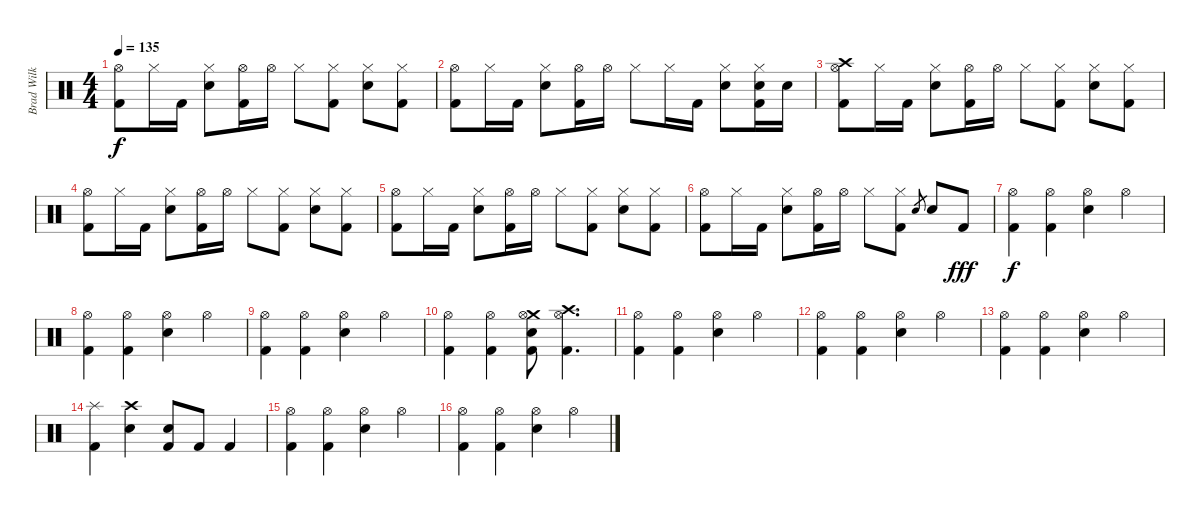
\track ("Brad Wilk" "Brad Wilk") {instrument percussion}
\staff {score}
\articulation defaults
\ts (4 4)
\tempo 135
\clef neutral
\ks c
("Hi-Hat (open)" "Kick (hit) 2").8{dy f} "Hi-Hat (closed)".16 "Kick (hit) 2".16 ("Hi-Hat (closed)" "Electric Snare (hit)").8 ("Hi-Hat (open)" "Kick (hit) 2").16 "Hi-Hat (open)".16 "Hi-Hat (closed)".8 ("Hi-Hat (closed)" "Kick (hit) 2").8 ("Hi-Hat (closed)" "Electric Snare (hit)").8 ("Hi-Hat (closed)" "Kick (hit) 2").8 |
("Hi-Hat (open)" "Kick (hit) 2").8 "Hi-Hat (closed)".16 "Kick (hit) 2".16 ("Hi-Hat (closed)" "Electric Snare (hit)").8 ("Hi-Hat (open)" "Kick (hit) 2").16 "Hi-Hat (open)".16 "Hi-Hat (closed)".8 "Hi-Hat (closed)".16 "Kick (hit) 2".16 ("Hi-Hat (closed)" "Electric Snare (hit)").8 ("Hi-Hat (closed)" "Electric Snare (hit)" "Kick (hit) 2").16 "Electric Snare (hit)".16 |
("Crash high (hit)" "Hi-Hat (open)" "Kick (hit) 2").8 "Hi-Hat (closed)".16 "Kick (hit) 2".16 ("Hi-Hat (closed)" "Electric Snare (hit)").8 ("Hi-Hat (open)" "Kick (hit) 2").16 "Hi-Hat (open)".16 "Hi-Hat (closed)".8 ("Hi-Hat (closed)" "Kick (hit) 2").8 ("Hi-Hat (closed)" "Electric Snare (hit)").8 ("Hi-Hat (closed)" "Kick (hit) 2").8 |
("Hi-Hat (open)" "Kick (hit) 2").8 "Hi-Hat (closed)".16 "Kick (hit) 2".16 ("Hi-Hat (closed)" "Electric Snare (hit)").8 ("Hi-Hat (open)" "Kick (hit) 2").16 "Hi-Hat (open)".16 "Hi-Hat (closed)".8 ("Hi-Hat (closed)" "Kick (hit) 2").8 ("Hi-Hat (closed)" "Electric Snare (hit)").8 ("Hi-Hat (closed)" "Kick (hit) 2").8 |
("Hi-Hat (open)" "Kick (hit) 2").8 "Hi-Hat (closed)".16 "Kick (hit) 2".16 ("Hi-Hat (closed)" "Electric Snare (hit)").8 ("Hi-Hat (open)" "Kick (hit) 2").16 "Hi-Hat (open)".16 "Hi-Hat (closed)".8 ("Hi-Hat (closed)" "Kick (hit) 2").8 ("Hi-Hat (closed)" "Electric Snare (hit)").8 ("Hi-Hat (closed)" "Kick (hit) 2").8 |
("Hi-Hat (open)" "Kick (hit) 2").8 "Hi-Hat (closed)".16 "Kick (hit) 2".16 ("Hi-Hat (closed)" "Electric Snare (hit)").8 ("Hi-Hat (open)" "Kick (hit) 2").16 "Hi-Hat (open)".16 "Hi-Hat (closed)".8 ("Hi-Hat (closed)" "Kick (hit) 2").8 "Electric Snare (hit)".8{gr} "Electric Snare (hit)".8 "Kick (hit) 2".8{dy fff} |
("Hi-Hat (open)" "Kick (hit) 2").4{dy f} ("Hi-Hat (open)" "Kick (hit) 2").4 ("Hi-Hat (open)" "Electric Snare (hit)").4 "Hi-Hat (open)".4 |
("Hi-Hat (open)" "Kick (hit) 2").4 ("Hi-Hat (open)" "Kick (hit) 2").4 ("Hi-Hat (open)" "Electric Snare (hit)").4 "Hi-Hat (open)".4 |
("Hi-Hat (open)" "Kick (hit) 2").4 ("Hi-Hat (open)" "Kick (hit) 2").4 ("Hi-Hat (open)" "Electric Snare (hit)").4 "Hi-Hat (open)".4 |
("Hi-Hat (open)" "Kick (hit) 2").4 ("Hi-Hat (open)" "Kick (hit) 2").4 ("Crash medium (hit)" "Hi-Hat (open)" "Electric Snare (hit)" "Kick (hit) 2").8 ("Crash high (hit)" "Hi-Hat (open)" "Kick (hit) 2").4{d} |
("Hi-Hat (open)" "Kick (hit) 2").4 ("Hi-Hat (open)" "Kick (hit) 2").4 ("Hi-Hat (open)" "Electric Snare (hit)").4 "Hi-Hat (open)".4 |
("Hi-Hat (open)" "Kick (hit) 2").4 ("Hi-Hat (open)" "Kick (hit) 2").4 ("Hi-Hat (open)" "Electric Snare (hit)").4 "Hi-Hat (open)".4 |
("Hi-Hat (open)" "Kick (hit) 2").4 ("Hi-Hat (open)" "Kick (hit) 2").4 ("Hi-Hat (open)" "Electric Snare (hit)").4 "Hi-Hat (open)".4 |
("Splash (hit)" "Kick (hit) 2").4 ("Crash high (hit)" "Electric Snare (hit)").4 ("Electric Snare (hit)" "Kick (hit) 2").8 "Kick (hit) 2".8 "Kick (hit) 2".4 |
("Hi-Hat (open)" "Kick (hit) 2").4 ("Hi-Hat (open)" "Kick (hit) 2").4 ("Hi-Hat (open)" "Electric Snare (hit)").4 "Hi-Hat (open)".4 |
("Hi-Hat (open)" "Kick (hit) 2").4 ("Hi-Hat (open)" "Kick (hit) 2").4 ("Hi-Hat (open)" "Electric Snare (hit)").4 "Hi-Hat (open)".4
